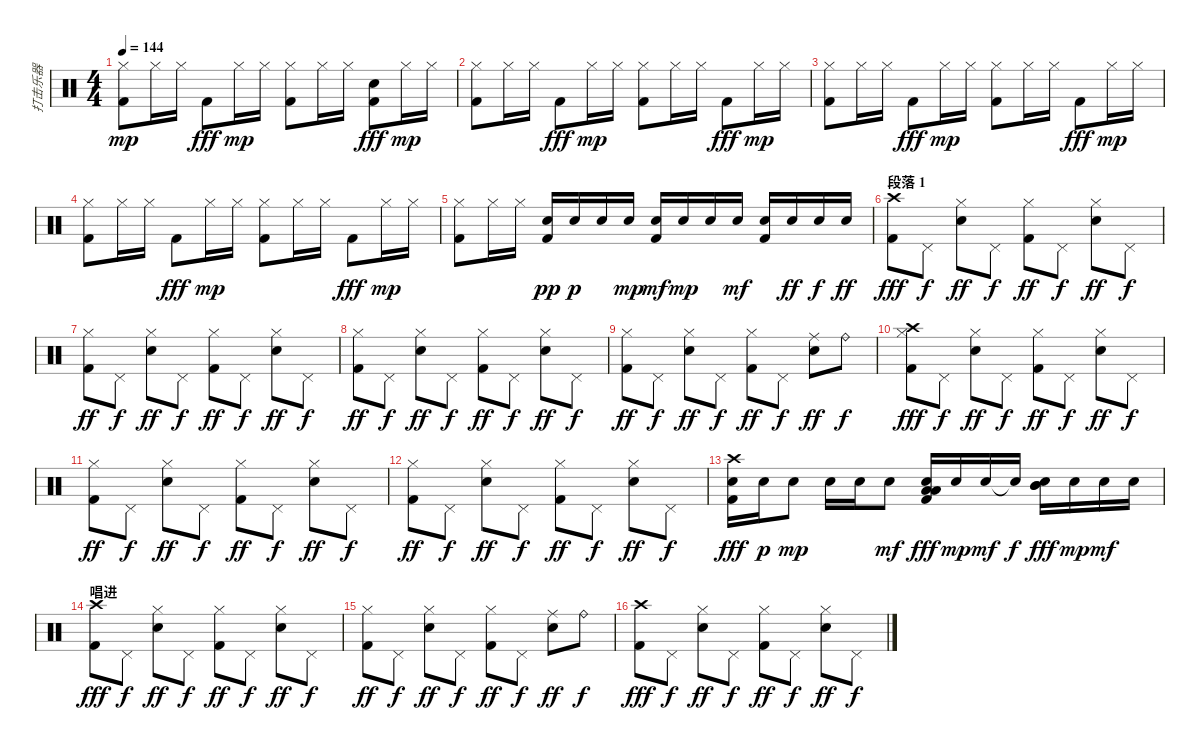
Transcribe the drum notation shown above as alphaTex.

\track ("打击乐器" "打击乐器") {instrument percussion}
\staff {score}
\articulation defaults
\ts (4 4)
\tempo 144
\clef neutral
\ks c
("Kick (hit) 2" "Hi-Hat (closed)").8{dy mp} "Hi-Hat (closed)".16 "Hi-Hat (closed)".16 "Kick (hit) 2".8{dy fff} "Hi-Hat (closed)".16{dy mp} "Hi-Hat (closed)".16 ("Kick (hit) 2" "Hi-Hat (closed)").8 "Hi-Hat (closed)".16 "Hi-Hat (closed)".16 ("Kick (hit) 2" "Snare (hit) 2").8{dy fff} "Hi-Hat (closed)".16{dy mp} "Hi-Hat (closed)".16 |
("Kick (hit) 2" "Hi-Hat (closed)").8 "Hi-Hat (closed)".16 "Hi-Hat (closed)".16 "Kick (hit) 2".8{dy fff} "Hi-Hat (closed)".16{dy mp} "Hi-Hat (closed)".16 ("Kick (hit) 2" "Hi-Hat (closed)").8 "Hi-Hat (closed)".16 "Hi-Hat (closed)".16 "Kick (hit) 2".8{dy fff} "Hi-Hat (closed)".16{dy mp} "Hi-Hat (closed)".16 |
("Kick (hit) 2" "Hi-Hat (closed)").8 "Hi-Hat (closed)".16 "Hi-Hat (closed)".16 "Kick (hit) 2".8{dy fff} "Hi-Hat (closed)".16{dy mp} "Hi-Hat (closed)".16 ("Kick (hit) 2" "Hi-Hat (closed)").8 "Hi-Hat (closed)".16 "Hi-Hat (closed)".16 "Kick (hit) 2".8{dy fff} "Hi-Hat (closed)".16{dy mp} "Hi-Hat (closed)".16 |
("Kick (hit) 2" "Hi-Hat (closed)").8 "Hi-Hat (closed)".16 "Hi-Hat (closed)".16 "Kick (hit) 2".8{dy fff} "Hi-Hat (closed)".16{dy mp} "Hi-Hat (closed)".16 ("Kick (hit) 2" "Hi-Hat (closed)").8 "Hi-Hat (closed)".16 "Hi-Hat (closed)".16 "Kick (hit) 2".8{dy fff} "Hi-Hat (closed)".16{dy mp} "Hi-Hat (closed)".16 |
("Kick (hit) 2" "Hi-Hat (closed)").8 "Hi-Hat (closed)".16 "Hi-Hat (closed)".16 ("Kick (hit) 2" "Snare (hit) 2").16{dy pp} "Snare (hit) 2".16{dy p} "Snare (hit) 2".16 "Snare (hit) 2".16{dy mp} ("Kick (hit) 2" "Snare (hit) 2").16{dy mf} "Snare (hit) 2".16{dy mp} "Snare (hit) 2".16 "Snare (hit) 2".16{dy mf} ("Kick (hit) 2" "Snare (hit) 2").16 "Snare (hit) 2".16{dy ff} "Snare (hit) 2".16{dy f} "Snare (hit) 2".16{dy ff} |
\section ("" "段落 1")
("Kick (hit) 2" "Crash high (hit)").8{dy fff} "Pedal Hi-Hat (hit)".8{dy f} ("Snare (hit) 2" "Hi-Hat (closed)").8{dy ff} "Pedal Hi-Hat (hit)".8{dy f} ("Kick (hit) 2" "Hi-Hat (closed)").8{dy ff} "Pedal Hi-Hat (hit)".8{dy f} ("Snare (hit) 2" "Hi-Hat (closed)").8{dy ff} "Pedal Hi-Hat (hit)".8{dy f} |
("Kick (hit) 2" "Hi-Hat (closed)").8{dy ff} "Pedal Hi-Hat (hit)".8{dy f} ("Snare (hit) 2" "Hi-Hat (closed)").8{dy ff} "Pedal Hi-Hat (hit)".8{dy f} ("Kick (hit) 2" "Hi-Hat (closed)").8{dy ff} "Pedal Hi-Hat (hit)".8{dy f} ("Snare (hit) 2" "Hi-Hat (closed)").8{dy ff} "Pedal Hi-Hat (hit)".8{dy f} |
("Kick (hit) 2" "Hi-Hat (closed)").8{dy ff} "Pedal Hi-Hat (hit)".8{dy f} ("Snare (hit) 2" "Hi-Hat (closed)").8{dy ff} "Pedal Hi-Hat (hit)".8{dy f} ("Kick (hit) 2" "Hi-Hat (closed)").8{dy ff} "Pedal Hi-Hat (hit)".8{dy f} ("Snare (hit) 2" "Hi-Hat (closed)").8{dy ff} "Pedal Hi-Hat (hit)".8{dy f} |
("Kick (hit) 2" "Hi-Hat (closed)").8{dy ff} "Pedal Hi-Hat (hit)".8{dy f} ("Snare (hit) 2" "Hi-Hat (closed)").8{dy ff} "Pedal Hi-Hat (hit)".8{dy f} ("Kick (hit) 2" "Hi-Hat (closed)").8{dy ff} "Pedal Hi-Hat (hit)".8{dy f} ("Snare (hit) 2" "Ride (middle)").8{dy ff} "Ride (bell)".8{dy f} |
("Kick (hit) 2" "Hi-Hat (closed)" "Crash high (hit)").8{dy fff} "Pedal Hi-Hat (hit)".8{dy f} ("Snare (hit) 2" "Hi-Hat (closed)").8{dy ff} "Pedal Hi-Hat (hit)".8{dy f} ("Kick (hit) 2" "Hi-Hat (closed)").8{dy ff} "Pedal Hi-Hat (hit)".8{dy f} ("Snare (hit) 2" "Hi-Hat (closed)").8{dy ff} "Pedal Hi-Hat (hit)".8{dy f} |
("Kick (hit) 2" "Hi-Hat (closed)").8{dy ff} "Pedal Hi-Hat (hit)".8{dy f} ("Snare (hit) 2" "Hi-Hat (closed)").8{dy ff} "Pedal Hi-Hat (hit)".8{dy f} ("Kick (hit) 2" "Hi-Hat (closed)").8{dy ff} "Pedal Hi-Hat (hit)".8{dy f} ("Snare (hit) 2" "Hi-Hat (closed)").8{dy ff} "Pedal Hi-Hat (hit)".8{dy f} |
("Kick (hit) 2" "Hi-Hat (closed)").8{dy ff} "Pedal Hi-Hat (hit)".8{dy f} ("Snare (hit) 2" "Hi-Hat (closed)").8{dy ff} "Pedal Hi-Hat (hit)".8{dy f} ("Kick (hit) 2" "Hi-Hat (closed)").8{dy ff} "Pedal Hi-Hat (hit)".8{dy f} ("Snare (hit) 2" "Hi-Hat (closed)").8{dy ff} "Pedal Hi-Hat (hit)".8{dy f} |
("Kick (hit) 2" "Snare (hit) 2" "Crash high (hit)").16{dy fff} "Snare (hit) 2".16{dy p} "Snare (hit) 2".8{dy mp} "Snare (hit) 2".16 "Snare (hit) 2".16 "Snare (hit) 2".8{dy mf} ("Kick (hit) 2" "Snare (hit) 2" "Low Tom (hit)" "Low Tom (hit)").16{dy fff} "Snare (hit) 2".16{dy mp} "Snare (hit) 2".16{dy mf} "Snare (hit)"{t}.16{dy f} ("Snare (hit) 2" "Mid Tom (hit)" "Mid Tom (hit)").16{dy fff} "Snare (hit) 2".16{dy mp} "Snare (hit) 2".16{dy mf} "Snare (hit) 2".16 |
\section ("" "唱进")
("Kick (hit) 2" "Crash high (hit)").8{dy fff} "Pedal Hi-Hat (hit)".8{dy f} ("Snare (hit) 2" "Hi-Hat (closed)").8{dy ff} "Pedal Hi-Hat (hit)".8{dy f} ("Kick (hit) 2" "Hi-Hat (closed)").8{dy ff} "Pedal Hi-Hat (hit)".8{dy f} ("Snare (hit) 2" "Hi-Hat (closed)").8{dy ff} "Pedal Hi-Hat (hit)".8{dy f} |
("Kick (hit) 2" "Hi-Hat (closed)").8{dy ff} "Pedal Hi-Hat (hit)".8{dy f} ("Snare (hit) 2" "Hi-Hat (closed)").8{dy ff} "Pedal Hi-Hat (hit)".8{dy f} ("Kick (hit) 2" "Hi-Hat (closed)").8{dy ff} "Pedal Hi-Hat (hit)".8{dy f} ("Snare (hit) 2" "Ride (middle)").8{dy ff} "Ride (bell)".8{dy f} |
("Kick (hit) 2" "Crash high (hit)").8{dy fff} "Pedal Hi-Hat (hit)".8{dy f} ("Snare (hit) 2" "Hi-Hat (closed)").8{dy ff} "Pedal Hi-Hat (hit)".8{dy f} ("Kick (hit) 2" "Hi-Hat (closed)").8{dy ff} "Pedal Hi-Hat (hit)".8{dy f} ("Snare (hit) 2" "Hi-Hat (closed)").8{dy ff} "Pedal Hi-Hat (hit)".8{dy f}
